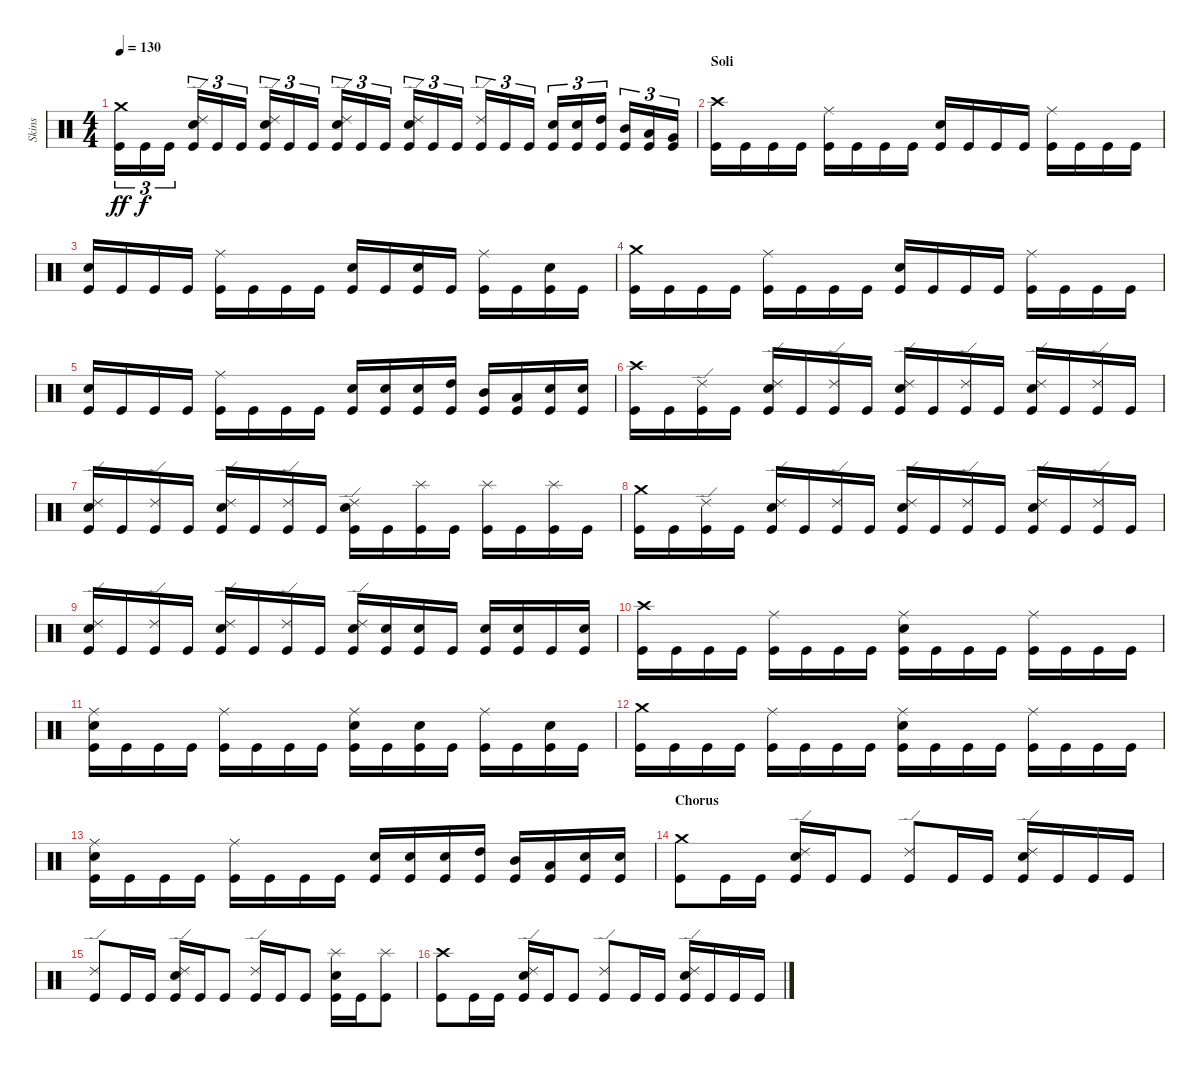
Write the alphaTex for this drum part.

\track ("Skins" "Skins") {instrument percussion}
\staff {score}
\articulation defaults
\ts (4 4)
\tempo 130
\clef neutral
\ks c
("Crash medium (hit)" "Kick (hit)").16{tu (3 2) dy ff} "Kick (hit)".16{tu (3 2) dy f} "Kick (hit)".16{tu (3 2)} ("Ride (edge) 2" "Electric Snare (hit)" "Kick (hit)").16{tu (3 2)} "Kick (hit)".16{tu (3 2)} "Kick (hit)".16{tu (3 2)} ("Ride (edge) 2" "Electric Snare (hit)" "Kick (hit)").16{tu (3 2)} "Kick (hit)".16{tu (3 2)} "Kick (hit)".16{tu (3 2)} ("Ride (edge) 2" "Electric Snare (hit)" "Kick (hit)").16{tu (3 2)} "Kick (hit)".16{tu (3 2)} "Kick (hit)".16{tu (3 2)} ("Ride (edge) 2" "Electric Snare (hit)" "Kick (hit)").16{tu (3 2)} "Kick (hit)".16{tu (3 2)} "Kick (hit)".16{tu (3 2)} ("Ride (edge) 2" "Kick (hit)").16{tu (3 2)} "Kick (hit)".16{tu (3 2)} "Kick (hit)".16{tu (3 2)} ("Electric Snare (hit)" "Kick (hit)").16{tu (3 2)} ("Electric Snare (hit)" "Kick (hit)").16{tu (3 2)} ("High Tom (hit)" "Kick (hit)").16{tu (3 2)} ("Mid Tom (hit)" "Kick (hit)").16{tu (3 2)} ("Low Tom (hit)" "Kick (hit)").16{tu (3 2)} ("Very Low Tom (hit)" "Kick (hit)").16{tu (3 2)} |
\section ("" "Soli")
("Crash high (hit)" "Kick (hit)").16 "Kick (hit)".16 "Kick (hit)".16 "Kick (hit)".16 ("Ride (middle)" "Kick (hit)").16 "Kick (hit)".16 "Kick (hit)".16 "Kick (hit)".16 ("Electric Snare (hit)" "Kick (hit)").16 "Kick (hit)".16 "Kick (hit)".16 "Kick (hit)".16 ("Ride (middle)" "Kick (hit)").16 "Kick (hit)".16 "Kick (hit)".16 "Kick (hit)".16 |
("Electric Snare (hit)" "Kick (hit)").16 "Kick (hit)".16 "Kick (hit)".16 "Kick (hit)".16 ("Ride (middle)" "Kick (hit)").16 "Kick (hit)".16 "Kick (hit)".16 "Kick (hit)".16 ("Electric Snare (hit)" "Kick (hit)").16 "Kick (hit)".16 ("Electric Snare (hit)" "Kick (hit)").16 "Kick (hit)".16 ("Ride (middle)" "Kick (hit)").16 "Kick (hit)".16 ("Electric Snare (hit)" "Kick (hit)").16 "Kick (hit)".16 |
("Crash medium (hit)" "Kick (hit)").16 "Kick (hit)".16 "Kick (hit)".16 "Kick (hit)".16 ("Ride (middle)" "Kick (hit)").16 "Kick (hit)".16 "Kick (hit)".16 "Kick (hit)".16 ("Electric Snare (hit)" "Kick (hit)").16 "Kick (hit)".16 "Kick (hit)".16 "Kick (hit)".16 ("Ride (middle)" "Kick (hit)").16 "Kick (hit)".16 "Kick (hit)".16 "Kick (hit)".16 |
("Electric Snare (hit)" "Kick (hit)").16 "Kick (hit)".16 "Kick (hit)".16 "Kick (hit)".16 ("Ride (middle)" "Kick (hit)").16 "Kick (hit)".16 "Kick (hit)".16 "Kick (hit)".16 ("Electric Snare (hit)" "Kick (hit)").16 ("Electric Snare (hit)" "Kick (hit)").16 ("Electric Snare (hit)" "Kick (hit)").16 ("High Tom (hit)" "Kick (hit)").16 ("Mid Tom (hit)" "Kick (hit)").16 ("Low Tom (hit)" "Kick (hit)").16 ("Electric Snare (hit)" "Kick (hit)").16 ("Electric Snare (hit)" "Kick (hit)").16 |
\section ("" "")
("Crash high (hit)" "Kick (hit)").16 "Kick (hit)".16 ("Ride (edge) 2" "Kick (hit)").16 "Kick (hit)".16 ("Ride (edge) 2" "Electric Snare (hit)" "Kick (hit)").16 "Kick (hit)".16 ("Ride (edge) 2" "Kick (hit)").16 "Kick (hit)".16 ("Ride (edge) 2" "Electric Snare (hit)" "Kick (hit)").16 "Kick (hit)".16 ("Ride (edge) 2" "Kick (hit)").16 "Kick (hit)".16 ("Ride (edge) 2" "Electric Snare (hit)" "Kick (hit)").16 "Kick (hit)".16 ("Ride (edge) 2" "Kick (hit)").16 "Kick (hit)".16 |
("Ride (edge) 2" "Electric Snare (hit)" "Kick (hit)").16 "Kick (hit)".16 ("Ride (edge) 2" "Kick (hit)").16 "Kick (hit)".16 ("Ride (edge) 2" "Electric Snare (hit)" "Kick (hit)").16 "Kick (hit)".16 ("Ride (edge) 2" "Kick (hit)").16 "Kick (hit)".16 ("Ride (edge) 2" "Electric Snare (hit)" "Kick (hit)").16 "Kick (hit)".16 ("Splash (hit)" "Kick (hit)").16 "Kick (hit)".16 ("Splash (hit)" "Kick (hit)").16 "Kick (hit)".16 ("Splash (hit)" "Kick (hit)").16 "Kick (hit)".16 |
("Crash medium (hit)" "Kick (hit)").16 "Kick (hit)".16 ("Ride (edge) 2" "Kick (hit)").16 "Kick (hit)".16 ("Ride (edge) 2" "Electric Snare (hit)" "Kick (hit)").16 "Kick (hit)".16 ("Ride (edge) 2" "Kick (hit)").16 "Kick (hit)".16 ("Ride (edge) 2" "Electric Snare (hit)" "Kick (hit)").16 "Kick (hit)".16 ("Ride (edge) 2" "Kick (hit)").16 "Kick (hit)".16 ("Ride (edge) 2" "Electric Snare (hit)" "Kick (hit)").16 "Kick (hit)".16 ("Ride (edge) 2" "Kick (hit)").16 "Kick (hit)".16 |
("Ride (edge) 2" "Electric Snare (hit)" "Kick (hit)").16 "Kick (hit)".16 ("Ride (edge) 2" "Kick (hit)").16 "Kick (hit)".16 ("Ride (edge) 2" "Electric Snare (hit)" "Kick (hit)").16 "Kick (hit)".16 ("Ride (edge) 2" "Kick (hit)").16 "Kick (hit)".16 ("Ride (edge) 2" "Electric Snare (hit)" "Kick (hit)").16 ("Electric Snare (hit)" "Kick (hit)").16 ("Electric Snare (hit)" "Kick (hit)").16 "Kick (hit)".16 ("Electric Snare (hit)" "Kick (hit)").16 ("Electric Snare (hit)" "Kick (hit)").16 "Kick (hit)".16 ("Electric Snare (hit)" "Kick (hit)").16 |
\section ("" "")
("Crash high (hit)" "Kick (hit)").16 "Kick (hit)".16 "Kick (hit)".16 "Kick (hit)".16 ("Ride (middle)" "Kick (hit)").16 "Kick (hit)".16 "Kick (hit)".16 "Kick (hit)".16 ("Ride (middle)" "Electric Snare (hit)" "Kick (hit)").16 "Kick (hit)".16 "Kick (hit)".16 "Kick (hit)".16 ("Ride (middle)" "Kick (hit)").16 "Kick (hit)".16 "Kick (hit)".16 "Kick (hit)".16 |
("Ride (middle)" "Electric Snare (hit)" "Kick (hit)").16 "Kick (hit)".16 "Kick (hit)".16 "Kick (hit)".16 ("Ride (middle)" "Kick (hit)").16 "Kick (hit)".16 "Kick (hit)".16 "Kick (hit)".16 ("Ride (middle)" "Electric Snare (hit)" "Kick (hit)").16 "Kick (hit)".16 ("Electric Snare (hit)" "Kick (hit)").16 "Kick (hit)".16 ("Ride (middle)" "Kick (hit)").16 "Kick (hit)".16 ("Electric Snare (hit)" "Kick (hit)").16 "Kick (hit)".16 |
("Crash medium (hit)" "Kick (hit)").16 "Kick (hit)".16 "Kick (hit)".16 "Kick (hit)".16 ("Ride (middle)" "Kick (hit)").16 "Kick (hit)".16 "Kick (hit)".16 "Kick (hit)".16 ("Ride (middle)" "Electric Snare (hit)" "Kick (hit)").16 "Kick (hit)".16 "Kick (hit)".16 "Kick (hit)".16 ("Ride (middle)" "Kick (hit)").16 "Kick (hit)".16 "Kick (hit)".16 "Kick (hit)".16 |
("Ride (middle)" "Electric Snare (hit)" "Kick (hit)").16 "Kick (hit)".16 "Kick (hit)".16 "Kick (hit)".16 ("Ride (middle)" "Kick (hit)").16 "Kick (hit)".16 "Kick (hit)".16 "Kick (hit)".16 ("Electric Snare (hit)" "Kick (hit)").16 ("Electric Snare (hit)" "Kick (hit)").16 ("Electric Snare (hit)" "Kick (hit)").16 ("High Tom (hit)" "Kick (hit)").16 ("Mid Tom (hit)" "Kick (hit)").16 ("Low Tom (hit)" "Kick (hit)").16 ("Electric Snare (hit)" "Kick (hit)").16 ("Electric Snare (hit)" "Kick (hit)").16 |
\section ("" "Chorus")
("Crash medium (hit)" "Kick (hit)").8 "Kick (hit)".16 "Kick (hit)".16 ("Ride (edge) 2" "Electric Snare (hit)" "Kick (hit)").16 "Kick (hit)".16 "Kick (hit)".8 ("Ride (edge) 2" "Kick (hit)").8 "Kick (hit)".16 "Kick (hit)".16 ("Ride (edge) 2" "Electric Snare (hit)" "Kick (hit)").16 "Kick (hit)".16 "Kick (hit)".16 "Kick (hit)".16 |
("Ride (edge) 2" "Kick (hit)").8 "Kick (hit)".16 "Kick (hit)".16 ("Ride (edge) 2" "Electric Snare (hit)" "Kick (hit)").16 "Kick (hit)".16 "Kick (hit)".8 ("Ride (edge) 2" "Kick (hit)").16 "Kick (hit)".16 "Kick (hit)".8 ("Splash (hit)" "Electric Snare (hit)" "Kick (hit)").16 "Kick (hit)".16 ("Splash (hit)" "Kick (hit)").8 |
("Crash high (hit)" "Kick (hit)").8 "Kick (hit)".16 "Kick (hit)".16 ("Ride (edge) 2" "Electric Snare (hit)" "Kick (hit)").16 "Kick (hit)".16 "Kick (hit)".8 ("Ride (edge) 2" "Kick (hit)").8 "Kick (hit)".16 "Kick (hit)".16 ("Ride (edge) 2" "Electric Snare (hit)" "Kick (hit)").16 "Kick (hit)".16 "Kick (hit)".16 "Kick (hit)".16
